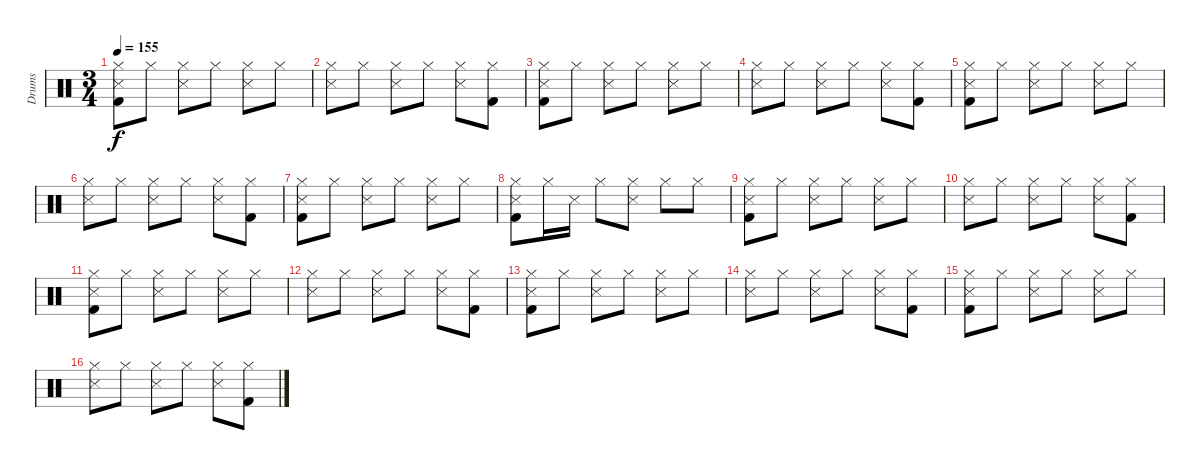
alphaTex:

\track ("Drums" "Drums") {instrument percussion}
\staff {score}
\articulation defaults
\ts (3 4)
\tempo 155
\clef neutral
\ks c
("Hi-Hat (closed)" "Snare (side stick) 3" "Kick (hit) 2").8{dy f} "Hi-Hat (closed)".8 ("Hi-Hat (closed)" "Snare (side stick) 3").8 "Hi-Hat (closed)".8 ("Snare (side stick) 3" "Hi-Hat (closed)").8 "Hi-Hat (closed)".8 |
("Hi-Hat (closed)" "Snare (side stick) 3").8 "Hi-Hat (closed)".8 ("Hi-Hat (closed)" "Snare (side stick) 3").8 "Hi-Hat (closed)".8 ("Snare (side stick) 3" "Hi-Hat (closed)").8 ("Kick (hit) 2" "Hi-Hat (closed)").8 |
("Hi-Hat (closed)" "Snare (side stick) 3" "Kick (hit) 2").8 "Hi-Hat (closed)".8 ("Hi-Hat (closed)" "Snare (side stick) 3").8 "Hi-Hat (closed)".8 ("Snare (side stick) 3" "Hi-Hat (closed)").8 "Hi-Hat (closed)".8 |
("Hi-Hat (closed)" "Snare (side stick) 3").8 "Hi-Hat (closed)".8 ("Hi-Hat (closed)" "Snare (side stick) 3").8 "Hi-Hat (closed)".8 ("Snare (side stick) 3" "Hi-Hat (closed)").8 ("Kick (hit) 2" "Hi-Hat (closed)").8 |
("Hi-Hat (closed)" "Snare (side stick) 3" "Kick (hit) 2").8 "Hi-Hat (closed)".8 ("Hi-Hat (closed)" "Snare (side stick) 3").8 "Hi-Hat (closed)".8 ("Snare (side stick) 3" "Hi-Hat (closed)").8 "Hi-Hat (closed)".8 |
("Hi-Hat (closed)" "Snare (side stick) 3").8 "Hi-Hat (closed)".8 ("Hi-Hat (closed)" "Snare (side stick) 3").8 "Hi-Hat (closed)".8 ("Snare (side stick) 3" "Hi-Hat (closed)").8 ("Kick (hit) 2" "Hi-Hat (closed)").8 |
("Hi-Hat (closed)" "Snare (side stick) 3" "Kick (hit) 2").8 "Hi-Hat (closed)".8 ("Hi-Hat (closed)" "Snare (side stick) 3").8 "Hi-Hat (closed)".8 ("Snare (side stick) 3" "Hi-Hat (closed)").8 "Hi-Hat (closed)".8 |
("Hi-Hat (closed)" "Snare (side stick) 3" "Kick (hit) 2").8 "Hi-Hat (closed)".16 "Snare (side stick) 3".16 "Hi-Hat (closed)".8 ("Snare (side stick) 3" "Hi-Hat (closed)").8 "Hi-Hat (closed)".8 "Hi-Hat (closed)".8 |
("Hi-Hat (closed)" "Snare (side stick) 3" "Kick (hit) 2").8 "Hi-Hat (closed)".8 ("Hi-Hat (closed)" "Snare (side stick) 3").8 "Hi-Hat (closed)".8 ("Snare (side stick) 3" "Hi-Hat (closed)").8 "Hi-Hat (closed)".8 |
("Hi-Hat (closed)" "Snare (side stick) 3").8 "Hi-Hat (closed)".8 ("Hi-Hat (closed)" "Snare (side stick) 3").8 "Hi-Hat (closed)".8 ("Snare (side stick) 3" "Hi-Hat (closed)").8 ("Kick (hit) 2" "Hi-Hat (closed)").8 |
("Hi-Hat (closed)" "Snare (side stick) 3" "Kick (hit) 2").8 "Hi-Hat (closed)".8 ("Hi-Hat (closed)" "Snare (side stick) 3").8 "Hi-Hat (closed)".8 ("Snare (side stick) 3" "Hi-Hat (closed)").8 "Hi-Hat (closed)".8 |
("Hi-Hat (closed)" "Snare (side stick) 3").8 "Hi-Hat (closed)".8 ("Hi-Hat (closed)" "Snare (side stick) 3").8 "Hi-Hat (closed)".8 ("Snare (side stick) 3" "Hi-Hat (closed)").8 ("Kick (hit) 2" "Hi-Hat (closed)").8 |
("Hi-Hat (closed)" "Snare (side stick) 3" "Kick (hit) 2").8 "Hi-Hat (closed)".8 ("Hi-Hat (closed)" "Snare (side stick) 3").8 "Hi-Hat (closed)".8 ("Snare (side stick) 3" "Hi-Hat (closed)").8 "Hi-Hat (closed)".8 |
("Hi-Hat (closed)" "Snare (side stick) 3").8 "Hi-Hat (closed)".8 ("Hi-Hat (closed)" "Snare (side stick) 3").8 "Hi-Hat (closed)".8 ("Snare (side stick) 3" "Hi-Hat (closed)").8 ("Kick (hit) 2" "Hi-Hat (closed)").8 |
("Hi-Hat (closed)" "Snare (side stick) 3" "Kick (hit) 2").8 "Hi-Hat (closed)".8 ("Hi-Hat (closed)" "Snare (side stick) 3").8 "Hi-Hat (closed)".8 ("Snare (side stick) 3" "Hi-Hat (closed)").8 "Hi-Hat (closed)".8 |
("Hi-Hat (closed)" "Snare (side stick) 3").8 "Hi-Hat (closed)".8 ("Hi-Hat (closed)" "Snare (side stick) 3").8 "Hi-Hat (closed)".8 ("Snare (side stick) 3" "Hi-Hat (closed)").8 ("Hi-Hat (closed)" "Kick (hit) 2").8
